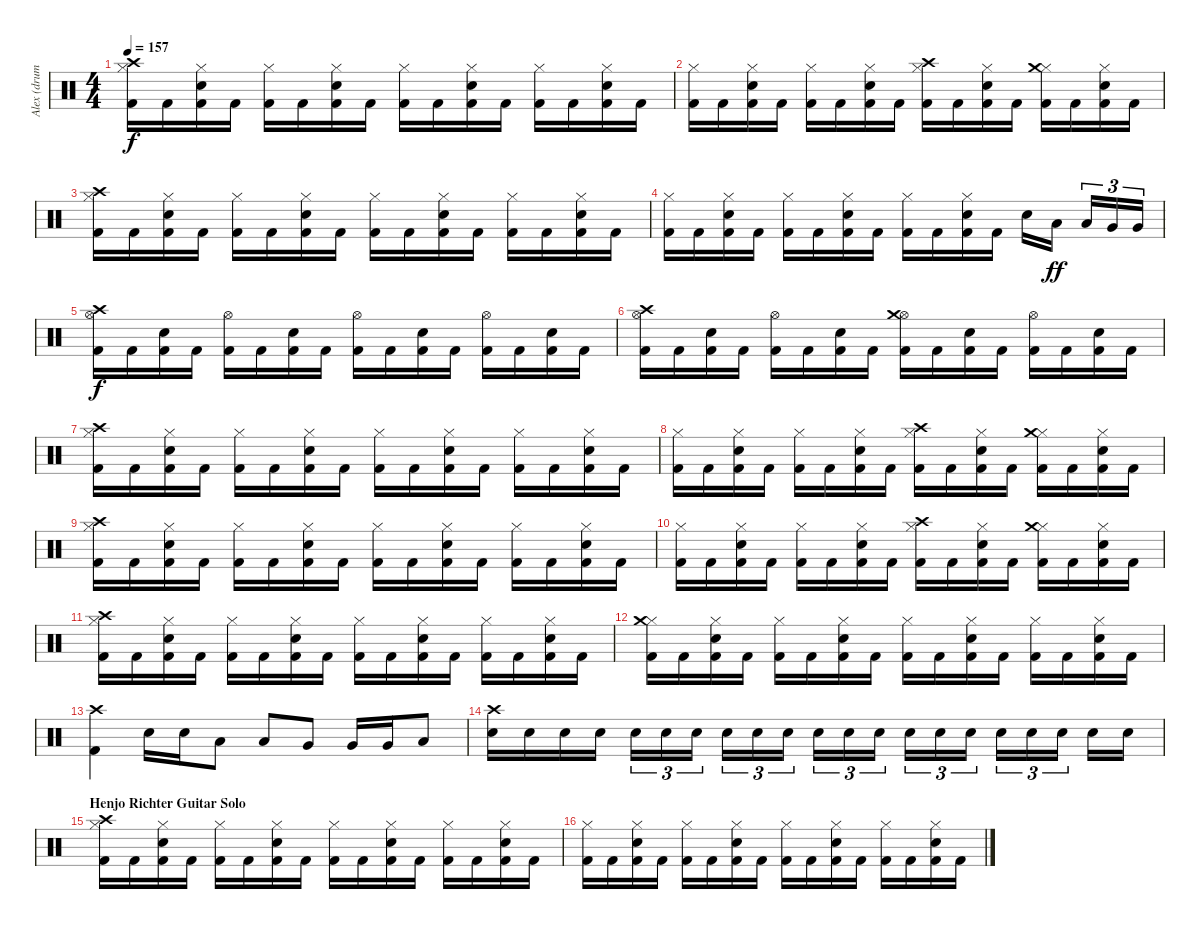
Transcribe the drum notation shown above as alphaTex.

\track ("Alex (drums)" "Alex (drum") {instrument percussion}
\staff {score}
\articulation defaults
\ts (4 4)
\tempo 157
\clef neutral
\ks c
("Hi-Hat (closed)" "Kick (hit) 2" "Crash high (hit)").16{dy f} "Kick (hit) 2".16 ("Hi-Hat (closed)" "Snare (hit) 2" "Kick (hit) 2").16 "Kick (hit) 2".16 ("Hi-Hat (closed)" "Kick (hit) 2").16 "Kick (hit) 2".16 ("Hi-Hat (closed)" "Snare (hit) 2" "Kick (hit) 2").16 "Kick (hit) 2".16 ("Hi-Hat (closed)" "Kick (hit) 2").16 "Kick (hit) 2".16 ("Hi-Hat (closed)" "Snare (hit) 2" "Kick (hit) 2").16 "Kick (hit) 2".16 ("Hi-Hat (closed)" "Kick (hit) 2").16 "Kick (hit) 2".16 ("Hi-Hat (closed)" "Snare (hit) 2" "Kick (hit) 2").16 "Kick (hit) 2".16 |
("Hi-Hat (closed)" "Kick (hit) 2").16 "Kick (hit) 2".16 ("Hi-Hat (closed)" "Snare (hit) 2" "Kick (hit) 2").16 "Kick (hit) 2".16 ("Hi-Hat (closed)" "Kick (hit) 2").16 "Kick (hit) 2".16 ("Hi-Hat (closed)" "Snare (hit) 2" "Kick (hit) 2").16 "Kick (hit) 2".16 ("Hi-Hat (closed)" "Kick (hit) 2" "Crash high (hit)").16 "Kick (hit) 2".16 ("Hi-Hat (closed)" "Snare (hit) 2" "Kick (hit) 2").16 "Kick (hit) 2".16 ("Hi-Hat (closed)" "Kick (hit) 2" "Crash medium (hit)").16 "Kick (hit) 2".16 ("Hi-Hat (closed)" "Snare (hit) 2" "Kick (hit) 2").16 "Kick (hit) 2".16 |
("Hi-Hat (closed)" "Kick (hit) 2" "Crash high (hit)").16 "Kick (hit) 2".16 ("Hi-Hat (closed)" "Snare (hit) 2" "Kick (hit) 2").16 "Kick (hit) 2".16 ("Hi-Hat (closed)" "Kick (hit) 2").16 "Kick (hit) 2".16 ("Hi-Hat (closed)" "Snare (hit) 2" "Kick (hit) 2").16 "Kick (hit) 2".16 ("Hi-Hat (closed)" "Kick (hit) 2").16 "Kick (hit) 2".16 ("Hi-Hat (closed)" "Snare (hit) 2" "Kick (hit) 2").16 "Kick (hit) 2".16 ("Hi-Hat (closed)" "Kick (hit) 2").16 "Kick (hit) 2".16 ("Hi-Hat (closed)" "Snare (hit) 2" "Kick (hit) 2").16 "Kick (hit) 2".16 |
("Hi-Hat (closed)" "Kick (hit) 2").16 "Kick (hit) 2".16 ("Hi-Hat (closed)" "Snare (hit) 2" "Kick (hit) 2").16 "Kick (hit) 2".16 ("Hi-Hat (closed)" "Kick (hit) 2").16 "Kick (hit) 2".16 ("Hi-Hat (closed)" "Snare (hit) 2" "Kick (hit) 2").16 "Kick (hit) 2".16 ("Hi-Hat (closed)" "Kick (hit) 2").16 "Kick (hit) 2".16 ("Hi-Hat (closed)" "Snare (hit) 2" "Kick (hit) 2").16 "Kick (hit) 2".16 "Snare (hit) 2".16 "Low Tom (hit)".16{dy ff} "Low Tom (hit)".16{tu (3 2)} "Very Low Tom (hit)".16{tu (3 2)} "Very Low Tom (hit)".16{tu (3 2)} |
("Hi-Hat (open)" "Kick (hit) 2" "Crash high (hit)").16{dy f} "Kick (hit) 2".16 ("Snare (hit) 2" "Kick (hit) 2").16 "Kick (hit) 2".16 ("Hi-Hat (open)" "Kick (hit) 2").16 "Kick (hit) 2".16 ("Snare (hit) 2" "Kick (hit) 2").16 "Kick (hit) 2".16 ("Hi-Hat (open)" "Kick (hit) 2").16 "Kick (hit) 2".16 ("Snare (hit) 2" "Kick (hit) 2").16 "Kick (hit) 2".16 ("Hi-Hat (open)" "Kick (hit) 2").16 "Kick (hit) 2".16 ("Snare (hit) 2" "Kick (hit) 2").16 "Kick (hit) 2".16 |
("Hi-Hat (open)" "Kick (hit) 2" "Crash high (hit)").16 "Kick (hit) 2".16 ("Snare (hit) 2" "Kick (hit) 2").16 "Kick (hit) 2".16 ("Hi-Hat (open)" "Kick (hit) 2").16 "Kick (hit) 2".16 ("Snare (hit) 2" "Kick (hit) 2").16 "Kick (hit) 2".16 ("Hi-Hat (open)" "Kick (hit) 2" "Crash medium (hit)").16 "Kick (hit) 2".16 ("Snare (hit) 2" "Kick (hit) 2").16 "Kick (hit) 2".16 ("Hi-Hat (open)" "Kick (hit) 2").16 "Kick (hit) 2".16 ("Snare (hit) 2" "Kick (hit) 2").16 "Kick (hit) 2".16 |
("Hi-Hat (closed)" "Kick (hit) 2" "Crash high (hit)").16 "Kick (hit) 2".16 ("Hi-Hat (closed)" "Snare (hit) 2" "Kick (hit) 2").16 "Kick (hit) 2".16 ("Hi-Hat (closed)" "Kick (hit) 2").16 "Kick (hit) 2".16 ("Hi-Hat (closed)" "Snare (hit) 2" "Kick (hit) 2").16 "Kick (hit) 2".16 ("Hi-Hat (closed)" "Kick (hit) 2").16 "Kick (hit) 2".16 ("Hi-Hat (closed)" "Snare (hit) 2" "Kick (hit) 2").16 "Kick (hit) 2".16 ("Hi-Hat (closed)" "Kick (hit) 2").16 "Kick (hit) 2".16 ("Hi-Hat (closed)" "Snare (hit) 2" "Kick (hit) 2").16 "Kick (hit) 2".16 |
("Hi-Hat (closed)" "Kick (hit) 2").16 "Kick (hit) 2".16 ("Hi-Hat (closed)" "Snare (hit) 2" "Kick (hit) 2").16 "Kick (hit) 2".16 ("Hi-Hat (closed)" "Kick (hit) 2").16 "Kick (hit) 2".16 ("Hi-Hat (closed)" "Snare (hit) 2" "Kick (hit) 2").16 "Kick (hit) 2".16 ("Hi-Hat (closed)" "Kick (hit) 2" "Crash high (hit)").16 "Kick (hit) 2".16 ("Hi-Hat (closed)" "Snare (hit) 2" "Kick (hit) 2").16 "Kick (hit) 2".16 ("Hi-Hat (closed)" "Kick (hit) 2" "Crash medium (hit)").16 "Kick (hit) 2".16 ("Hi-Hat (closed)" "Snare (hit) 2" "Kick (hit) 2").16 "Kick (hit) 2".16 |
("Hi-Hat (closed)" "Kick (hit) 2" "Crash high (hit)").16 "Kick (hit) 2".16 ("Hi-Hat (closed)" "Snare (hit) 2" "Kick (hit) 2").16 "Kick (hit) 2".16 ("Hi-Hat (closed)" "Kick (hit) 2").16 "Kick (hit) 2".16 ("Hi-Hat (closed)" "Snare (hit) 2" "Kick (hit) 2").16 "Kick (hit) 2".16 ("Hi-Hat (closed)" "Kick (hit) 2").16 "Kick (hit) 2".16 ("Hi-Hat (closed)" "Snare (hit) 2" "Kick (hit) 2").16 "Kick (hit) 2".16 ("Hi-Hat (closed)" "Kick (hit) 2").16 "Kick (hit) 2".16 ("Hi-Hat (closed)" "Snare (hit) 2" "Kick (hit) 2").16 "Kick (hit) 2".16 |
("Hi-Hat (closed)" "Kick (hit) 2").16 "Kick (hit) 2".16 ("Hi-Hat (closed)" "Snare (hit) 2" "Kick (hit) 2").16 "Kick (hit) 2".16 ("Hi-Hat (closed)" "Kick (hit) 2").16 "Kick (hit) 2".16 ("Hi-Hat (closed)" "Snare (hit) 2" "Kick (hit) 2").16 "Kick (hit) 2".16 ("Hi-Hat (closed)" "Kick (hit) 2" "Crash high (hit)").16 "Kick (hit) 2".16 ("Hi-Hat (closed)" "Snare (hit) 2" "Kick (hit) 2").16 "Kick (hit) 2".16 ("Hi-Hat (closed)" "Kick (hit) 2" "Crash medium (hit)").16 "Kick (hit) 2".16 ("Hi-Hat (closed)" "Snare (hit) 2" "Kick (hit) 2").16 "Kick (hit) 2".16 |
("Hi-Hat (closed)" "Kick (hit) 2" "Crash high (hit)").16 "Kick (hit) 2".16 ("Hi-Hat (closed)" "Snare (hit) 2" "Kick (hit) 2").16 "Kick (hit) 2".16 ("Hi-Hat (closed)" "Kick (hit) 2").16 "Kick (hit) 2".16 ("Hi-Hat (closed)" "Snare (hit) 2" "Kick (hit) 2").16 "Kick (hit) 2".16 ("Hi-Hat (closed)" "Kick (hit) 2").16 "Kick (hit) 2".16 ("Hi-Hat (closed)" "Snare (hit) 2" "Kick (hit) 2").16 "Kick (hit) 2".16 ("Hi-Hat (closed)" "Kick (hit) 2").16 "Kick (hit) 2".16 ("Hi-Hat (closed)" "Snare (hit) 2" "Kick (hit) 2").16 "Kick (hit) 2".16 |
("Hi-Hat (closed)" "Kick (hit) 2" "Crash medium (hit)").16 "Kick (hit) 2".16 ("Hi-Hat (closed)" "Snare (hit) 2" "Kick (hit) 2").16 "Kick (hit) 2".16 ("Hi-Hat (closed)" "Kick (hit) 2").16 "Kick (hit) 2".16 ("Hi-Hat (closed)" "Snare (hit) 2" "Kick (hit) 2").16 "Kick (hit) 2".16 ("Hi-Hat (closed)" "Kick (hit) 2").16 "Kick (hit) 2".16 ("Hi-Hat (closed)" "Snare (hit) 2" "Kick (hit) 2").16 "Kick (hit) 2".16 ("Hi-Hat (closed)" "Kick (hit) 2").16 "Kick (hit) 2".16 ("Hi-Hat (closed)" "Snare (hit) 2" "Kick (hit) 2").16 "Kick (hit) 2".16 |
("Kick (hit) 2" "Crash high (hit)").4 "Snare (hit) 2".16 "Snare (hit) 2".16 "Low Tom (hit)".8 "Low Tom (hit)".8 "Very Low Tom (hit)".8 "Very Low Tom (hit)".16 "Very Low Tom (hit)".16 "Low Floor Tom (hit)".8 |
("Snare (hit) 2" "Crash high (hit)").16 "Snare (hit) 2".16 "Snare (hit) 2".16 "Snare (hit) 2".16 "Snare (hit) 2".16{tu (3 2)} "Snare (hit) 2".16{tu (3 2)} "Snare (hit) 2".16{tu (3 2)} "Snare (hit) 2".16{tu (3 2)} "Snare (hit) 2".16{tu (3 2)} "Snare (hit) 2".16{tu (3 2)} "Snare (hit) 2".16{tu (3 2)} "Snare (hit) 2".16{tu (3 2)} "Snare (hit) 2".16{tu (3 2)} "Snare (hit) 2".16{tu (3 2)} "Snare (hit) 2".16{tu (3 2)} "Snare (hit) 2".16{tu (3 2)} "Snare (hit) 2".16{tu (3 2)} "Snare (hit) 2".16{tu (3 2)} "Snare (hit) 2".16{tu (3 2)} "Snare (hit) 2".16 "Snare (hit) 2".16 |
\section ("" "Henjo Richter Guitar Solo")
("Hi-Hat (closed)" "Kick (hit) 2" "Crash high (hit)").16 "Kick (hit) 2".16 ("Hi-Hat (closed)" "Snare (hit) 2" "Kick (hit) 2").16 "Kick (hit) 2".16 ("Hi-Hat (closed)" "Kick (hit) 2").16 "Kick (hit) 2".16 ("Hi-Hat (closed)" "Snare (hit) 2" "Kick (hit) 2").16 "Kick (hit) 2".16 ("Hi-Hat (closed)" "Kick (hit) 2").16 "Kick (hit) 2".16 ("Hi-Hat (closed)" "Snare (hit) 2" "Kick (hit) 2").16 "Kick (hit) 2".16 ("Hi-Hat (closed)" "Kick (hit) 2").16 "Kick (hit) 2".16 ("Hi-Hat (closed)" "Snare (hit) 2" "Kick (hit) 2").16 "Kick (hit) 2".16 |
("Hi-Hat (closed)" "Kick (hit) 2").16 "Kick (hit) 2".16 ("Hi-Hat (closed)" "Snare (hit) 2" "Kick (hit) 2").16 "Kick (hit) 2".16 ("Hi-Hat (closed)" "Kick (hit) 2").16 "Kick (hit) 2".16 ("Hi-Hat (closed)" "Snare (hit) 2" "Kick (hit) 2").16 "Kick (hit) 2".16 ("Hi-Hat (closed)" "Kick (hit) 2").16 "Kick (hit) 2".16 ("Hi-Hat (closed)" "Snare (hit) 2" "Kick (hit) 2").16 "Kick (hit) 2".16 ("Hi-Hat (closed)" "Kick (hit) 2").16 "Kick (hit) 2".16 ("Hi-Hat (closed)" "Snare (hit) 2" "Kick (hit) 2").16 "Kick (hit) 2".16
